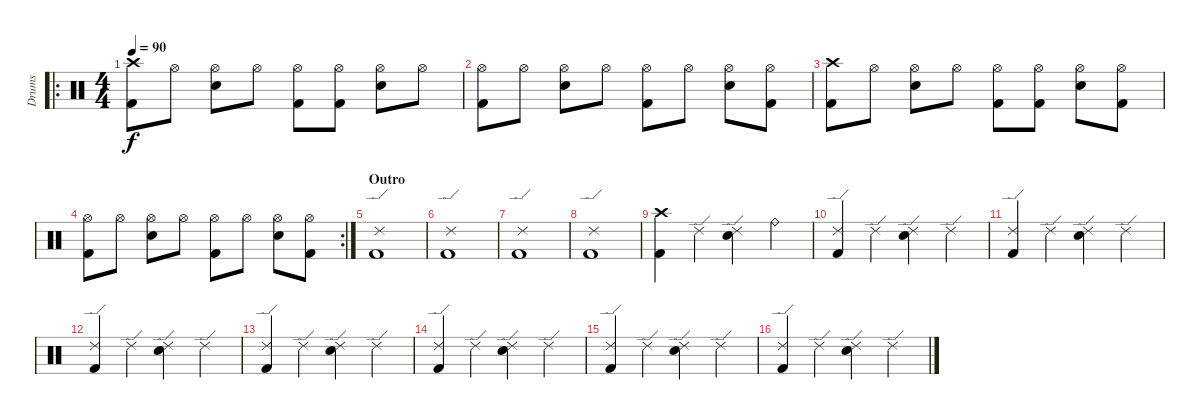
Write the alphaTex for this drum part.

\track ("Drums" "Drums") {instrument percussion}
\staff {score}
\articulation defaults
\ro
\ts (4 4)
\tempo 90
\clef neutral
\ks c
("Crash high (hit)" "Kick (hit) 2").8{dy f} "Hi-Hat (open)".8 ("Hi-Hat (open)" "Electric Snare (hit)").8 "Hi-Hat (open)".8 ("Hi-Hat (open)" "Kick (hit) 2").8 ("Hi-Hat (open)" "Kick (hit) 2").8 ("Hi-Hat (open)" "Electric Snare (hit)").8 "Hi-Hat (open)".8 |
("Hi-Hat (open)" "Kick (hit) 2").8 "Hi-Hat (open)".8 ("Hi-Hat (open)" "Electric Snare (hit)").8 "Hi-Hat (open)".8 ("Hi-Hat (open)" "Kick (hit) 2").8 "Hi-Hat (open)".8 ("Hi-Hat (open)" "Electric Snare (hit)").8 ("Hi-Hat (open)" "Kick (hit) 2").8 |
("Crash high (hit)" "Kick (hit) 2").8 "Hi-Hat (open)".8 ("Hi-Hat (open)" "Electric Snare (hit)").8 "Hi-Hat (open)".8 ("Hi-Hat (open)" "Kick (hit) 2").8 ("Hi-Hat (open)" "Kick (hit) 2").8 ("Hi-Hat (open)" "Electric Snare (hit)").8 ("Hi-Hat (open)" "Kick (hit) 2").8 |
\rc 2
("Hi-Hat (open)" "Kick (hit) 2").8 "Hi-Hat (open)".8 ("Hi-Hat (open)" "Electric Snare (hit)").8 "Hi-Hat (open)".8 ("Hi-Hat (open)" "Kick (hit) 2").8 "Hi-Hat (open)".8 ("Hi-Hat (open)" "Electric Snare (hit)").8 ("Hi-Hat (open)" "Kick (hit) 2").8 |
\section ("" "Outro")
("Kick (hit) 2" "Ride (edge) 2").1 |
("Kick (hit) 2" "Ride (edge) 2").1 |
("Kick (hit) 2" "Ride (edge) 2").1 |
("Kick (hit) 2" "Ride (edge) 2").1 |
("Crash high (hit)" "Kick (hit) 2").4 "Ride (edge) 2".4 ("Ride (edge) 2" "Electric Snare (hit)").4 "Ride (bell)".4 |
("Ride (edge) 2" "Kick (hit) 2").4 "Ride (edge) 2".4 ("Ride (edge) 2" "Electric Snare (hit)").4 "Ride (edge) 2".4 |
("Ride (edge) 2" "Kick (hit) 2").4 "Ride (edge) 2".4 ("Ride (edge) 2" "Electric Snare (hit)").4 "Ride (edge) 2".4 |
("Ride (edge) 2" "Kick (hit) 2").4 "Ride (edge) 2".4 ("Ride (edge) 2" "Electric Snare (hit)").4 "Ride (edge) 2".4 |
("Ride (edge) 2" "Kick (hit) 2").4 "Ride (edge) 2".4 ("Ride (edge) 2" "Electric Snare (hit)").4 "Ride (edge) 2".4 |
("Ride (edge) 2" "Kick (hit) 2").4 "Ride (edge) 2".4 ("Ride (edge) 2" "Electric Snare (hit)").4 "Ride (edge) 2".4 |
("Ride (edge) 2" "Kick (hit) 2").4 "Ride (edge) 2".4 ("Ride (edge) 2" "Electric Snare (hit)").4 "Ride (edge) 2".4 |
("Ride (edge) 2" "Kick (hit) 2").4 "Ride (edge) 2".4 ("Ride (edge) 2" "Electric Snare (hit)").4 "Ride (edge) 2".4
